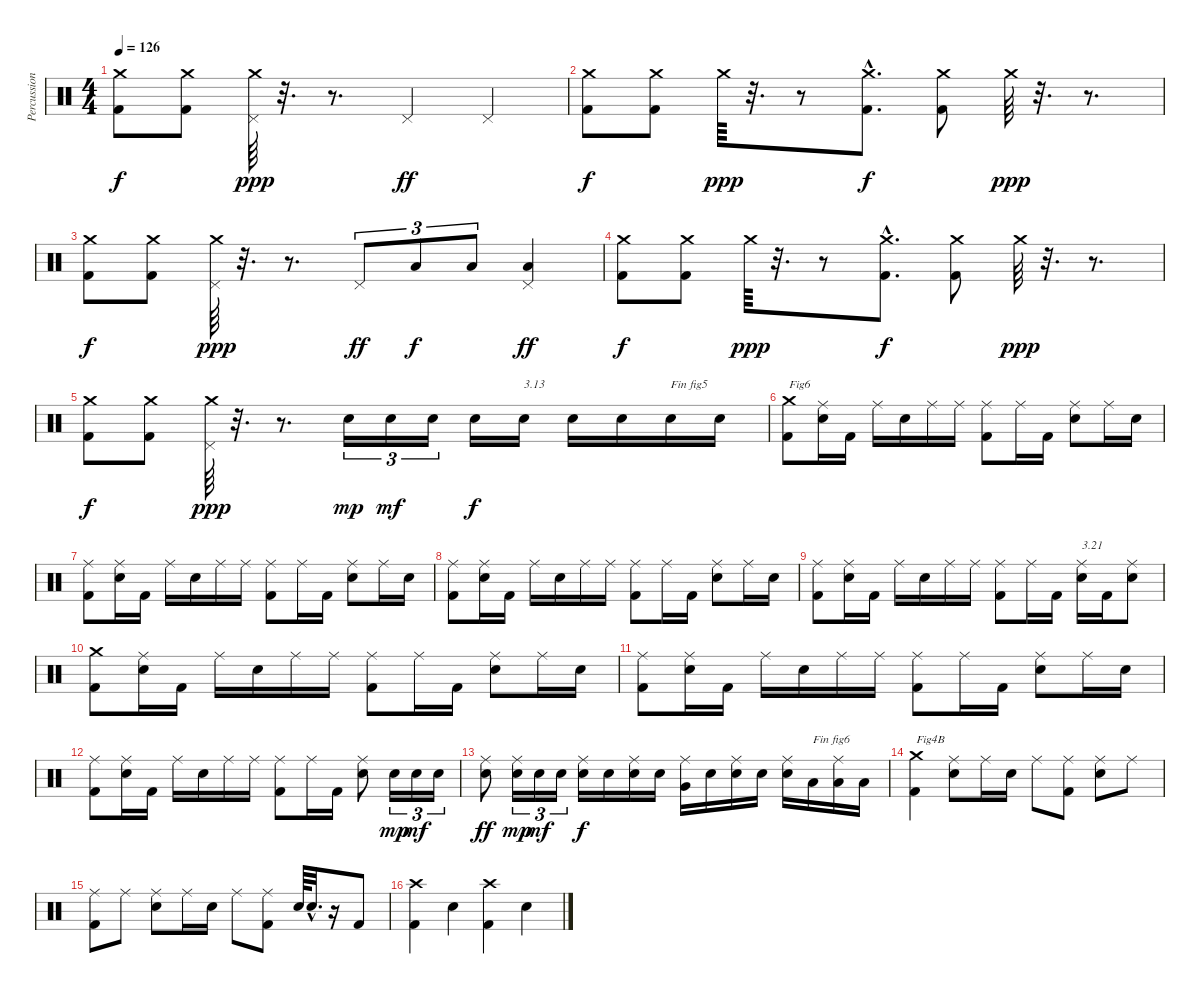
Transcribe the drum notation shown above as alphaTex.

\track ("Percussions" "Percussion") {instrument percussion}
\staff {score}
\articulation defaults
\ts (4 4)
\tempo 126
\clef neutral
\ks c
("Kick (hit) 2" "Crash medium (hit)").8{dy f} ("Kick (hit) 2" "Crash medium (hit)").8 ("Pedal Hi-Hat (hit)" "Crash medium (hit)").64{dy ppp} r.32{d} r.8{d} "Pedal Hi-Hat (hit)".4{dy ff} "Pedal Hi-Hat (hit)".4 |
("Kick (hit) 2" "Crash medium (hit)").8{dy f} ("Kick (hit) 2" "Crash medium (hit)").8 "Crash medium (hit)".64{dy ppp} r.32{d} r.8 ("Kick (hit) 2"{hac} "Crash medium (hit)"{hac}).8{d dy f} ("Kick (hit) 2" "Crash medium (hit)").8 "Crash medium (hit)".64{dy ppp} r.32{d} r.8{d} |
("Kick (hit) 2" "Crash medium (hit)").8{dy f} ("Kick (hit) 2" "Crash medium (hit)").8 ("Pedal Hi-Hat (hit)" "Crash medium (hit)").64{dy ppp} r.32{d} r.8{d} "Pedal Hi-Hat (hit)".8{tu (3 2) dy ff} "Low Floor Tom (hit)".8{tu (3 2) dy f} "Low Floor Tom (hit)".8{tu (3 2)} ("Low Floor Tom (hit)" "Pedal Hi-Hat (hit)").4{dy ff} |
("Kick (hit) 2" "Crash medium (hit)").8{dy f} ("Kick (hit) 2" "Crash medium (hit)").8 "Crash medium (hit)".64{dy ppp} r.32{d} r.8 ("Kick (hit) 2"{hac} "Crash medium (hit)"{hac}).8{d dy f} ("Kick (hit) 2" "Crash medium (hit)").8 "Crash medium (hit)".64{dy ppp} r.32{d} r.8{d} |
("Kick (hit) 2" "Crash medium (hit)").8{dy f} ("Kick (hit) 2" "Crash medium (hit)").8 ("Pedal Hi-Hat (hit)" "Crash medium (hit)").64{dy ppp} r.32{d} r.8{d} "Electric Snare (hit)".16{tu (3 2) dy mp} "Electric Snare (hit)".16{tu (3 2) dy mf} "Electric Snare (hit)".16{tu (3 2)} "Electric Snare (hit)".16{dy f} "Electric Snare (hit)".16{txt "3.13"} "Electric Snare (hit)".16 "Electric Snare (hit)".16 "Electric Snare (hit)".16{txt "Fin fig5"} "Electric Snare (hit)".16 |
("Kick (hit) 2" "Crash medium (hit)").8{txt "Fig6"} ("Electric Snare (hit)" "Ride (middle)").16 "Kick (hit) 2".16 "Ride (middle)".16 "Electric Snare (hit)".16 "Ride (middle)".16 "Ride (middle)".16 ("Kick (hit) 2" "Ride (middle)").8 "Ride (middle)".16 "Kick (hit) 2".16 ("Electric Snare (hit)" "Ride (middle)").8 "Ride (middle)".16 "Electric Snare (hit)".16 |
("Kick (hit) 2" "Ride (middle)").8 ("Electric Snare (hit)" "Ride (middle)").16 "Kick (hit) 2".16 "Ride (middle)".16 "Electric Snare (hit)".16 "Ride (middle)".16 "Ride (middle)".16 ("Kick (hit) 2" "Ride (middle)").8 "Ride (middle)".16 "Kick (hit) 2".16 ("Electric Snare (hit)" "Ride (middle)").8 "Ride (middle)".16 "Electric Snare (hit)".16 |
("Kick (hit) 2" "Ride (middle)").8 ("Electric Snare (hit)" "Ride (middle)").16 "Kick (hit) 2".16 "Ride (middle)".16 "Electric Snare (hit)".16 "Ride (middle)".16 "Ride (middle)".16 ("Kick (hit) 2" "Ride (middle)").8 "Ride (middle)".16 "Kick (hit) 2".16 ("Electric Snare (hit)" "Ride (middle)").8 "Ride (middle)".16 "Electric Snare (hit)".16 |
("Kick (hit) 2" "Ride (middle)").8 ("Electric Snare (hit)" "Ride (middle)").16 "Kick (hit) 2".16 "Ride (middle)".16 "Electric Snare (hit)".16 "Ride (middle)".16 "Ride (middle)".16 ("Kick (hit) 2" "Ride (middle)").8 "Ride (middle)".16 "Kick (hit) 2".16 ("Electric Snare (hit)" "Ride (middle)").16{txt "3.21"} "Kick (hit) 2".16 ("Electric Snare (hit)" "Ride (middle)").8 |
("Kick (hit) 2" "Crash medium (hit)").8 ("Electric Snare (hit)" "Ride (middle)").16 "Kick (hit) 2".16 "Ride (middle)".16 "Electric Snare (hit)".16 "Ride (middle)".16 "Ride (middle)".16 ("Kick (hit) 2" "Ride (middle)").8 "Ride (middle)".16 "Kick (hit) 2".16 ("Electric Snare (hit)" "Ride (middle)").8 "Ride (middle)".16 "Electric Snare (hit)".16 |
("Kick (hit) 2" "Ride (middle)").8 ("Electric Snare (hit)" "Ride (middle)").16 "Kick (hit) 2".16 "Ride (middle)".16 "Electric Snare (hit)".16 "Ride (middle)".16 "Ride (middle)".16 ("Kick (hit) 2" "Ride (middle)").8 "Ride (middle)".16 "Kick (hit) 2".16 ("Electric Snare (hit)" "Ride (middle)").8 "Ride (middle)".16 "Electric Snare (hit)".16 |
("Kick (hit) 2" "Ride (middle)").8 ("Electric Snare (hit)" "Ride (middle)").16 "Kick (hit) 2".16 "Ride (middle)".16 "Electric Snare (hit)".16 "Ride (middle)".16 "Ride (middle)".16 ("Kick (hit) 2" "Ride (middle)").8 "Ride (middle)".16 "Kick (hit) 2".16 ("Electric Snare (hit)" "Ride (middle)").8 "Electric Snare (hit)".16{tu (3 2) dy mp} "Electric Snare (hit)".16{tu (3 2) dy mf} "Electric Snare (hit)".16{tu (3 2)} |
("Electric Snare (hit)" "Ride (middle)").8{dy ff} ("Electric Snare (hit)" "Ride (middle)").16{tu (3 2) dy mp} "Electric Snare (hit)".16{tu (3 2) dy mf} "Electric Snare (hit)".16{tu (3 2)} ("Electric Snare (hit)" "Ride (middle)").16{dy f} "Electric Snare (hit)".16 ("Electric Snare (hit)" "Ride (middle)").16 "Electric Snare (hit)".16 ("Very Low Tom (hit)" "Ride (middle)").16 "Electric Snare (hit)".16 ("Electric Snare (hit)" "Ride (middle)").16 "Electric Snare (hit)".16 ("Electric Snare (hit)" "Ride (middle)").16 "Low Tom (hit)".16{txt "Fin fig6"} ("Low Floor Tom (hit)" "Ride (middle)").16 "Low Floor Tom (hit)".16 |
("Kick (hit) 2" "Crash medium (hit)").4{txt "Fig4B"} ("Electric Snare (hit)" "Ride (middle)").8 "Ride (middle)".16 "Electric Snare (hit)".16 "Ride (middle)".8 ("Kick (hit) 2" "Ride (middle)").8 ("Electric Snare (hit)" "Ride (middle)").8 "Ride (middle)".8 |
("Kick (hit) 2" "Ride (middle)").8 "Ride (middle)".8 ("Electric Snare (hit)" "Ride (middle)").8 "Ride (middle)".16 "Electric Snare (hit)".16 "Ride (middle)".8 ("Kick (hit) 2" "Ride (middle)").8 "Electric Snare (hit)".64 "Electric Snare (hit)"{hac}.32{d} r.16 "Kick (hit) 2".8 |
("Kick (hit) 2" "Crash high (hit)").4 "Electric Snare (hit)".4 ("Kick (hit) 2" "Crash high (hit)").4 "Electric Snare (hit)".4
